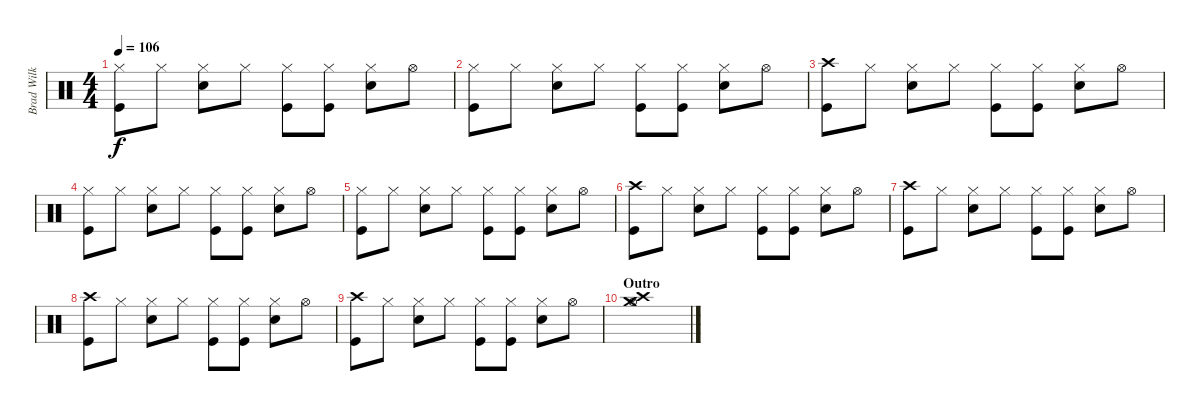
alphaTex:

\track ("Brad Wilk" "Brad Wilk") {instrument percussion}
\staff {score}
\articulation defaults
\ts (4 4)
\tempo 106
\clef neutral
\ks c
("Hi-Hat (closed)" "Kick (hit)").8{dy f} "Hi-Hat (closed)".8 ("Hi-Hat (closed)" "Electric Snare (hit)").8 "Hi-Hat (closed)".8 ("Hi-Hat (closed)" "Kick (hit)").8 ("Hi-Hat (closed)" "Kick (hit)").8 ("Hi-Hat (closed)" "Electric Snare (hit)").8 "Hi-Hat (open)".8 |
("Hi-Hat (closed)" "Kick (hit)").8 "Hi-Hat (closed)".8 ("Hi-Hat (closed)" "Electric Snare (hit)").8 "Hi-Hat (closed)".8 ("Hi-Hat (closed)" "Kick (hit)").8 ("Hi-Hat (closed)" "Kick (hit)").8 ("Hi-Hat (closed)" "Electric Snare (hit)").8 "Hi-Hat (open)".8 |
("Crash high (hit)" "Kick (hit)").8 "Hi-Hat (closed)".8 ("Hi-Hat (closed)" "Electric Snare (hit)").8 "Hi-Hat (closed)".8 ("Hi-Hat (closed)" "Kick (hit)").8 ("Hi-Hat (closed)" "Kick (hit)").8 ("Hi-Hat (closed)" "Electric Snare (hit)").8 "Hi-Hat (open)".8 |
("Hi-Hat (closed)" "Kick (hit)").8 "Hi-Hat (closed)".8 ("Hi-Hat (closed)" "Electric Snare (hit)").8 "Hi-Hat (closed)".8 ("Hi-Hat (closed)" "Kick (hit)").8 ("Hi-Hat (closed)" "Kick (hit)").8 ("Hi-Hat (closed)" "Electric Snare (hit)").8 "Hi-Hat (open)".8 |
("Hi-Hat (closed)" "Kick (hit)").8 "Hi-Hat (closed)".8 ("Hi-Hat (closed)" "Electric Snare (hit)").8 "Hi-Hat (closed)".8 ("Hi-Hat (closed)" "Kick (hit)").8 ("Hi-Hat (closed)" "Kick (hit)").8 ("Hi-Hat (closed)" "Electric Snare (hit)").8 "Hi-Hat (open)".8 |
("Crash high (hit)" "Kick (hit)").8 "Hi-Hat (closed)".8 ("Hi-Hat (closed)" "Electric Snare (hit)").8 "Hi-Hat (closed)".8 ("Hi-Hat (closed)" "Kick (hit)").8 ("Hi-Hat (closed)" "Kick (hit)").8 ("Hi-Hat (closed)" "Electric Snare (hit)").8 "Hi-Hat (open)".8 |
("Crash high (hit)" "Kick (hit)").8 "Hi-Hat (closed)".8 ("Hi-Hat (closed)" "Electric Snare (hit)").8 "Hi-Hat (closed)".8 ("Hi-Hat (closed)" "Kick (hit)").8 ("Hi-Hat (closed)" "Kick (hit)").8 ("Hi-Hat (closed)" "Electric Snare (hit)").8 "Hi-Hat (open)".8 |
("Crash high (hit)" "Kick (hit)").8 "Hi-Hat (closed)".8 ("Hi-Hat (closed)" "Electric Snare (hit)").8 "Hi-Hat (closed)".8 ("Hi-Hat (closed)" "Kick (hit)").8 ("Hi-Hat (closed)" "Kick (hit)").8 ("Hi-Hat (closed)" "Electric Snare (hit)").8 "Hi-Hat (open)".8 |
("Crash high (hit)" "Kick (hit)").8 "Hi-Hat (closed)".8 ("Hi-Hat (closed)" "Electric Snare (hit)").8 "Hi-Hat (closed)".8 ("Hi-Hat (closed)" "Kick (hit)").8 ("Hi-Hat (closed)" "Kick (hit)").8 ("Hi-Hat (closed)" "Electric Snare (hit)").8 "Hi-Hat (open)".8 |
\section ("" "Outro")
("Crash high (hit)" "Crash medium (hit)" "Hi-Hat (open)").1
